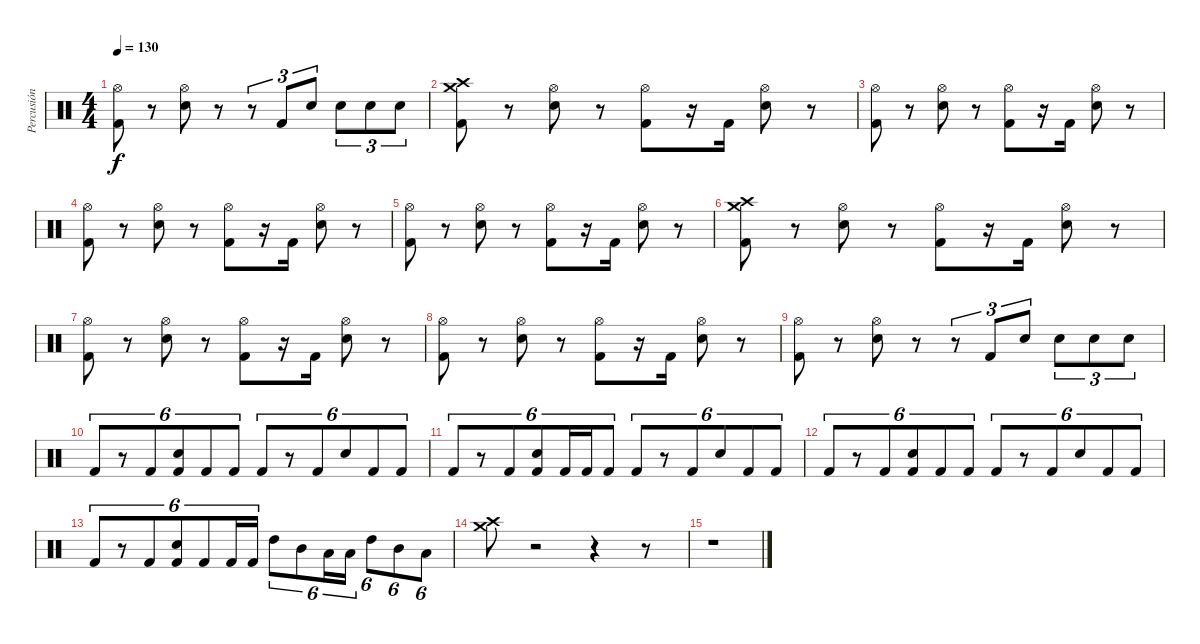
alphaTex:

\track ("Percusión" "Percusión") {instrument percussion}
\staff {score}
\articulation defaults
\ts (4 4)
\tempo 130
\clef neutral
\ks c
("Hi-Hat (open)" "Kick (hit) 2").8{dy f} r.8 ("Hi-Hat (open)" "Electric Snare (hit)").8 r.8 r.8{tu (3 2)} "Kick (hit) 2".8{tu (3 2)} "Electric Snare (hit)".8{tu (3 2)} "Electric Snare (hit)".8{tu (3 2)} "Electric Snare (hit)".8{tu (3 2)} "Electric Snare (hit)".8{tu (3 2)} |
("Crash high (hit)" "Crash medium (hit)" "Kick (hit) 2").8 r.8 ("Hi-Hat (open)" "Electric Snare (hit)").8 r.8 ("Hi-Hat (open)" "Kick (hit) 2").8 r.16 "Kick (hit) 2".16 ("Hi-Hat (open)" "Electric Snare (hit)").8 r.8 |
("Hi-Hat (open)" "Kick (hit) 2").8 r.8 ("Hi-Hat (open)" "Electric Snare (hit)").8 r.8 ("Hi-Hat (open)" "Kick (hit) 2").8 r.16 "Kick (hit) 2".16 ("Hi-Hat (open)" "Electric Snare (hit)").8 r.8 |
("Hi-Hat (open)" "Kick (hit) 2").8 r.8 ("Hi-Hat (open)" "Electric Snare (hit)").8 r.8 ("Hi-Hat (open)" "Kick (hit) 2").8 r.16 "Kick (hit) 2".16 ("Hi-Hat (open)" "Electric Snare (hit)").8 r.8 |
("Hi-Hat (open)" "Kick (hit) 2").8 r.8 ("Hi-Hat (open)" "Electric Snare (hit)").8 r.8 ("Hi-Hat (open)" "Kick (hit) 2").8 r.16 "Kick (hit) 2".16 ("Hi-Hat (open)" "Electric Snare (hit)").8 r.8 |
("Crash high (hit)" "Crash medium (hit)" "Kick (hit) 2").8 r.8 ("Hi-Hat (open)" "Electric Snare (hit)").8 r.8 ("Hi-Hat (open)" "Kick (hit) 2").8 r.16 "Kick (hit) 2".16 ("Hi-Hat (open)" "Electric Snare (hit)").8 r.8 |
("Hi-Hat (open)" "Kick (hit) 2").8 r.8 ("Hi-Hat (open)" "Electric Snare (hit)").8 r.8 ("Hi-Hat (open)" "Kick (hit) 2").8 r.16 "Kick (hit) 2".16 ("Hi-Hat (open)" "Electric Snare (hit)").8 r.8 |
("Hi-Hat (open)" "Kick (hit) 2").8 r.8 ("Hi-Hat (open)" "Electric Snare (hit)").8 r.8 ("Hi-Hat (open)" "Kick (hit) 2").8 r.16 "Kick (hit) 2".16 ("Hi-Hat (open)" "Electric Snare (hit)").8 r.8 |
("Hi-Hat (open)" "Kick (hit) 2").8 r.8 ("Hi-Hat (open)" "Electric Snare (hit)").8 r.8 r.8{tu (3 2)} "Kick (hit) 2".8{tu (3 2)} "Electric Snare (hit)".8{tu (3 2)} "Electric Snare (hit)".8{tu (3 2)} "Electric Snare (hit)".8{tu (3 2)} "Electric Snare (hit)".8{tu (3 2)} |
"Kick (hit) 2".8{tu (6 4)} r.8{tu (6 4)} "Kick (hit) 2".8{tu (6 4)} ("Electric Snare (hit)" "Kick (hit) 2").8{tu (6 4)} "Kick (hit) 2".8{tu (6 4)} "Kick (hit) 2".8{tu (6 4)} "Kick (hit) 2".8{tu (6 4)} r.8{tu (6 4)} "Kick (hit) 2".8{tu (6 4)} "Electric Snare (hit)".8{tu (6 4)} "Kick (hit) 2".8{tu (6 4)} "Kick (hit) 2".8{tu (6 4)} |
"Kick (hit) 2".8{tu (6 4)} r.8{tu (6 4)} "Kick (hit) 2".8{tu (6 4)} ("Electric Snare (hit)" "Kick (hit) 2").8{tu (6 4)} "Kick (hit) 2".16{tu (6 4)} "Kick (hit) 2".16{tu (6 4)} "Kick (hit) 2".8{tu (6 4)} "Kick (hit) 2".8{tu (6 4)} r.8{tu (6 4)} "Kick (hit) 2".8{tu (6 4)} "Electric Snare (hit)".8{tu (6 4)} "Kick (hit) 2".8{tu (6 4)} "Kick (hit) 2".8{tu (6 4)} |
"Kick (hit) 2".8{tu (6 4)} r.8{tu (6 4)} "Kick (hit) 2".8{tu (6 4)} ("Electric Snare (hit)" "Kick (hit) 2").8{tu (6 4)} "Kick (hit) 2".8{tu (6 4)} "Kick (hit) 2".8{tu (6 4)} "Kick (hit) 2".8{tu (6 4)} r.8{tu (6 4)} "Kick (hit) 2".8{tu (6 4)} "Electric Snare (hit)".8{tu (6 4)} "Kick (hit) 2".8{tu (6 4)} "Kick (hit) 2".8{tu (6 4)} |
"Kick (hit) 2".8{tu (6 4)} r.8{tu (6 4)} "Kick (hit) 2".8{tu (6 4)} ("Electric Snare (hit)" "Kick (hit) 2").8{tu (6 4)} "Kick (hit) 2".8{tu (6 4)} "Kick (hit) 2".16{tu (6 4)} "Kick (hit) 2".16{tu (6 4)} "High Tom (hit)".8{tu (6 4)} "Mid Tom (hit)".8{tu (6 4)} "Low Tom (hit)".16{tu (6 4)} "Low Tom (hit)".16{tu (6 4)} "High Tom (hit)".8{tu (6 4)} "Mid Tom (hit)".8{tu (6 4)} "Low Tom (hit)".8{tu (6 4)} |
("Crash high (hit)" "Crash medium (hit)").8 r.2 r.4 r.8 |
r.1
